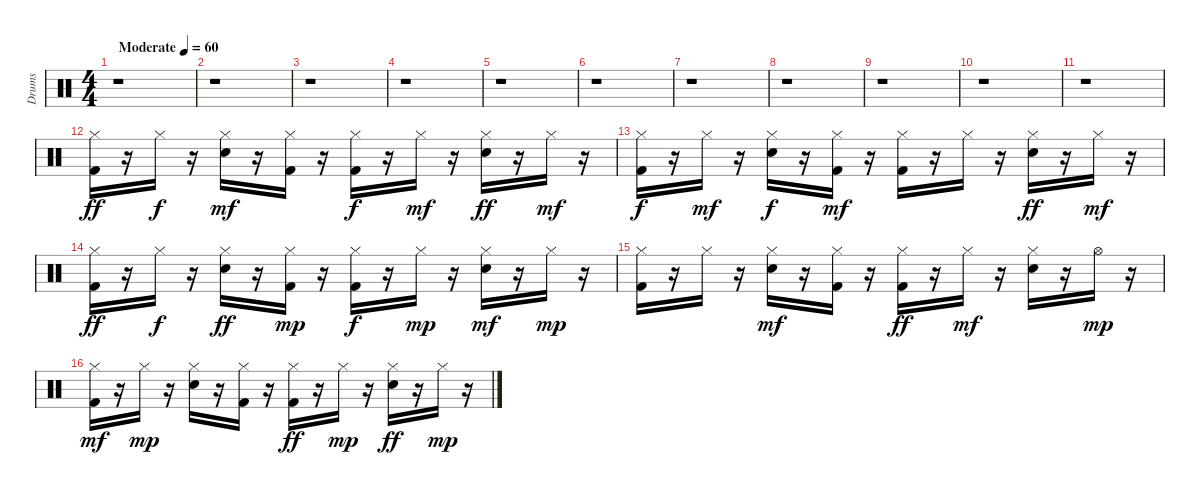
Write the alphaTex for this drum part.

\track ("Drums" "Drums") {instrument percussion}
\staff {score}
\articulation defaults
\ts (4 4)
\tempo (60 "Moderate")
\clef neutral
\ks c
r.1{dy ff} |
r.1 |
r.1 |
r.1 |
r.1 |
r.1 |
r.1 |
r.1 |
r.1 |
r.1 |
r.1 |
("Hi-Hat (closed)" "Kick (hit) 2").16 r.16 "Hi-Hat (closed)".16{dy f} r.16 ("Electric Snare (hit)" "Hi-Hat (closed)").16{dy mf} r.16 ("Hi-Hat (closed)" "Kick (hit) 2").16 r.16 ("Hi-Hat (closed)" "Kick (hit) 2").16{dy f} r.16 "Hi-Hat (closed)".16{dy mf} r.16 ("Hi-Hat (closed)" "Electric Snare (hit)").16{dy ff} r.16 "Hi-Hat (closed)".16{dy mf} r.16 |
("Hi-Hat (closed)" "Kick (hit) 2").16{dy f} r.16 "Hi-Hat (closed)".16{dy mf} r.16 ("Hi-Hat (closed)" "Electric Snare (hit)").16{dy f} r.16 ("Hi-Hat (closed)" "Kick (hit) 2").16{dy mf} r.16 ("Hi-Hat (closed)" "Kick (hit) 2").16 r.16 "Hi-Hat (closed)".16 r.16 ("Electric Snare (hit)" "Hi-Hat (closed)").16{dy ff} r.16 "Hi-Hat (closed)".16{dy mf} r.16 |
("Hi-Hat (closed)" "Kick (hit) 2").16{dy ff} r.16 "Hi-Hat (closed)".16{dy f} r.16 ("Hi-Hat (closed)" "Electric Snare (hit)").16{dy ff} r.16 ("Hi-Hat (closed)" "Kick (hit) 2").16{dy mp} r.16 ("Kick (hit) 2" "Hi-Hat (closed)").16{dy f} r.16 "Hi-Hat (closed)".16{dy mp} r.16 ("Hi-Hat (closed)" "Electric Snare (hit)").16{dy mf} r.16 "Hi-Hat (closed)".16{dy mp} r.16 |
("Kick (hit) 2" "Hi-Hat (closed)").16 r.16 "Hi-Hat (closed)".16 r.16 ("Hi-Hat (closed)" "Electric Snare (hit)").16{dy mf} r.16 ("Hi-Hat (closed)" "Kick (hit) 2").16 r.16 ("Hi-Hat (closed)" "Kick (hit) 2").16{dy ff} r.16 "Hi-Hat (closed)".16{dy mf} r.16 ("Electric Snare (hit)" "Hi-Hat (closed)").16 r.16 "Hi-Hat (open)".16{dy mp} r.16 |
("Hi-Hat (closed)" "Kick (hit) 2").16{dy mf} r.16 "Hi-Hat (closed)".16{dy mp} r.16 ("Electric Snare (hit)" "Hi-Hat (closed)").16 r.16 ("Hi-Hat (closed)" "Kick (hit) 2").16 r.16 ("Hi-Hat (closed)" "Kick (hit) 2").16{dy ff} r.16 "Hi-Hat (closed)".16{dy mp} r.16 ("Electric Snare (hit)" "Hi-Hat (closed)").16{dy ff} r.16 "Hi-Hat (closed)".16{dy mp} r.16
